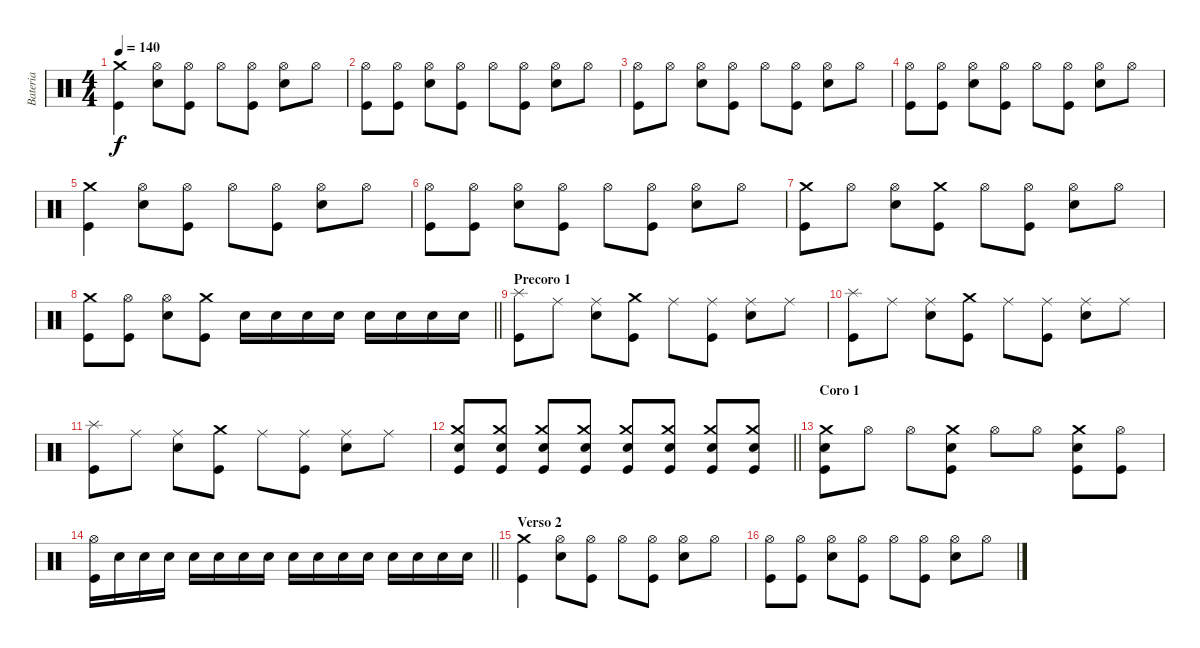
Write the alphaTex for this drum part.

\track ("Bateria" "Bateria") {instrument percussion}
\staff {score}
\articulation defaults
\ts (4 4)
\tempo 140
\clef neutral
\ks c
("Kick (hit)" "Crash medium (hit)").4{dy f} ("Snare (hit) 2" "Hi-Hat (open)").8 ("Kick (hit)" "Hi-Hat (open)").8 "Hi-Hat (open)".8 ("Kick (hit)" "Hi-Hat (open)").8 ("Snare (hit) 2" "Hi-Hat (open)").8 "Hi-Hat (open)".8 |
("Kick (hit)" "Hi-Hat (open)").8 ("Kick (hit)" "Hi-Hat (open)").8 ("Snare (hit) 2" "Hi-Hat (open)").8 ("Kick (hit)" "Hi-Hat (open)").8 "Hi-Hat (open)".8 ("Kick (hit)" "Hi-Hat (open)").8 ("Snare (hit) 2" "Hi-Hat (open)").8 "Hi-Hat (open)".8 |
("Kick (hit)" "Hi-Hat (open)").8 "Hi-Hat (open)".8 ("Snare (hit) 2" "Hi-Hat (open)").8 ("Kick (hit)" "Hi-Hat (open)").8 "Hi-Hat (open)".8 ("Kick (hit)" "Hi-Hat (open)").8 ("Snare (hit) 2" "Hi-Hat (open)").8 "Hi-Hat (open)".8 |
("Kick (hit)" "Hi-Hat (open)").8 ("Kick (hit)" "Hi-Hat (open)").8 ("Snare (hit) 2" "Hi-Hat (open)").8 ("Kick (hit)" "Hi-Hat (open)").8 "Hi-Hat (open)".8 ("Kick (hit)" "Hi-Hat (open)").8 ("Snare (hit) 2" "Hi-Hat (open)").8 "Hi-Hat (open)".8 |
("Kick (hit)" "Crash medium (hit)").4 ("Snare (hit) 2" "Hi-Hat (open)").8 ("Kick (hit)" "Hi-Hat (open)").8 "Hi-Hat (open)".8 ("Kick (hit)" "Hi-Hat (open)").8 ("Snare (hit) 2" "Hi-Hat (open)").8 "Hi-Hat (open)".8 |
("Kick (hit)" "Hi-Hat (open)").8 ("Kick (hit)" "Hi-Hat (open)").8 ("Snare (hit) 2" "Hi-Hat (open)").8 ("Kick (hit)" "Hi-Hat (open)").8 "Hi-Hat (open)".8 ("Kick (hit)" "Hi-Hat (open)").8 ("Snare (hit) 2" "Hi-Hat (open)").8 "Hi-Hat (open)".8 |
("Kick (hit)" "Crash medium (hit)").8 "Hi-Hat (open)".8 ("Snare (hit) 2" "Hi-Hat (open)").8 ("Kick (hit)" "Crash medium (hit)").8 "Hi-Hat (open)".8 ("Kick (hit)" "Hi-Hat (open)").8 ("Snare (hit) 2" "Hi-Hat (open)").8 "Hi-Hat (open)".8 |
\barLineRight lightlight
("Kick (hit)" "Crash medium (hit)").8 ("Kick (hit)" "Hi-Hat (open)").8 ("Snare (hit) 2" "Hi-Hat (open)").8 ("Kick (hit)" "Crash medium (hit)").8 "Snare (hit) 2".16 "Snare (hit) 2".16 "Snare (hit) 2".16 "Snare (hit) 2".16 "Snare (hit) 2".16 "Snare (hit) 2".16 "Snare (hit) 2".16 "Snare (hit) 2".16 |
\section ("" "Precoro 1")
("Kick (hit)" "Splash (hit)").8 "Ride (middle)".8 ("Snare (hit) 2" "Ride (middle)").8 ("Kick (hit)" "Crash medium (hit)").8 "Ride (middle)".8 ("Kick (hit)" "Ride (middle)").8 ("Snare (hit) 2" "Ride (middle)").8 "Ride (middle)".8 |
("Kick (hit)" "Splash (hit)").8 "Ride (middle)".8 ("Snare (hit) 2" "Ride (middle)").8 ("Kick (hit)" "Crash medium (hit)").8 "Ride (middle)".8 ("Kick (hit)" "Ride (middle)").8 ("Snare (hit) 2" "Ride (middle)").8 "Ride (middle)".8 |
("Kick (hit)" "Splash (hit)").8 "Ride (middle)".8 ("Snare (hit) 2" "Ride (middle)").8 ("Kick (hit)" "Crash medium (hit)").8 "Ride (middle)".8 ("Kick (hit)" "Ride (middle)").8 ("Snare (hit) 2" "Ride (middle)").8 "Ride (middle)".8 |
\barLineRight lightlight
("Kick (hit)" "Snare (hit) 2" "Crash medium (hit)").8 ("Kick (hit)" "Snare (hit) 2" "Crash medium (hit)").8 ("Kick (hit)" "Snare (hit) 2" "Crash medium (hit)").8 ("Kick (hit)" "Snare (hit) 2" "Crash medium (hit)").8 ("Kick (hit)" "Snare (hit) 2" "Crash medium (hit)").8 ("Kick (hit)" "Snare (hit) 2" "Crash medium (hit)").8 ("Kick (hit)" "Snare (hit) 2" "Crash medium (hit)").8 ("Kick (hit)" "Snare (hit) 2" "Crash medium (hit)").8 |
\section ("" "Coro 1")
("Kick (hit)" "Snare (hit) 2" "Crash medium (hit)").8 "Hi-Hat (open)".8 "Hi-Hat (open)".8 ("Kick (hit)" "Snare (hit) 2" "Crash medium (hit)").8 "Hi-Hat (open)".8 "Hi-Hat (open)".8 ("Kick (hit)" "Snare (hit) 2" "Crash medium (hit)").8 ("Kick (hit)" "Hi-Hat (open)").8 |
\barLineRight lightlight
("Kick (hit)" "Hi-Hat (open)").16 "Snare (hit) 2".16 "Snare (hit) 2".16 "Snare (hit) 2".16 "Snare (hit) 2".16 "Snare (hit) 2".16 "Snare (hit) 2".16 "Snare (hit) 2".16 "Snare (hit) 2".16 "Snare (hit) 2".16 "Snare (hit) 2".16 "Snare (hit) 2".16 "Snare (hit) 2".16 "Snare (hit) 2".16 "Snare (hit) 2".16 "Snare (hit) 2".16 |
\section ("" "Verso 2")
("Kick (hit)" "Crash medium (hit)").4 ("Snare (hit) 2" "Hi-Hat (open)").8 ("Kick (hit)" "Hi-Hat (open)").8 "Hi-Hat (open)".8 ("Kick (hit)" "Hi-Hat (open)").8 ("Snare (hit) 2" "Hi-Hat (open)").8 "Hi-Hat (open)".8 |
("Kick (hit)" "Hi-Hat (open)").8 ("Kick (hit)" "Hi-Hat (open)").8 ("Snare (hit) 2" "Hi-Hat (open)").8 ("Kick (hit)" "Hi-Hat (open)").8 "Hi-Hat (open)".8 ("Kick (hit)" "Hi-Hat (open)").8 ("Snare (hit) 2" "Hi-Hat (open)").8 "Hi-Hat (open)".8
